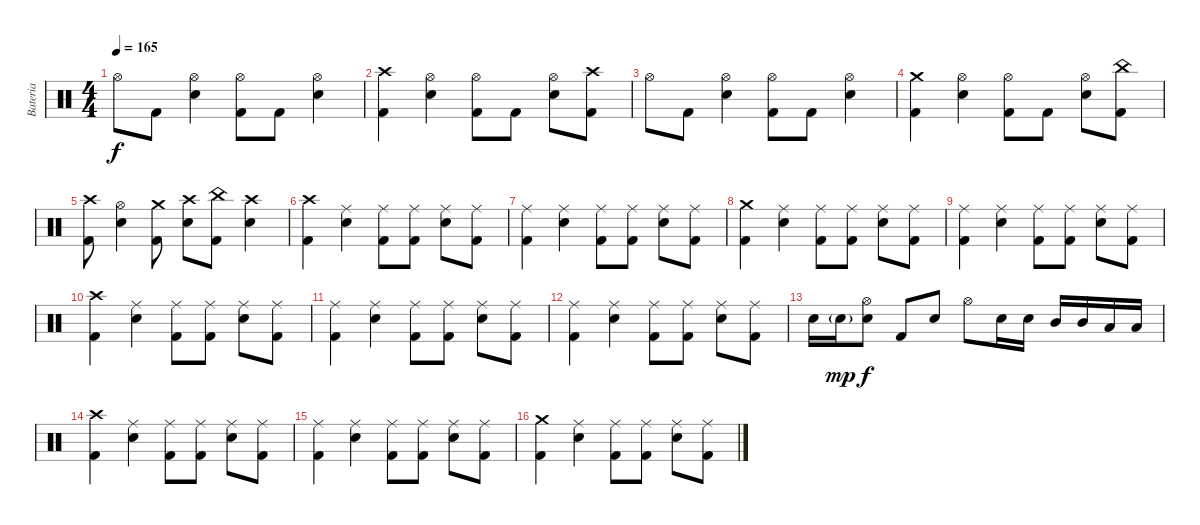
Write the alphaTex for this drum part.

\track ("Bateria" "Bateria") {instrument percussion}
\staff {score}
\articulation defaults
\ts (4 4)
\tempo 165
\clef neutral
\ks c "Hi-Hat (open)".8{dy f} "Kick (hit) 2".8
("Hi-Hat (open)" "Electric Snare (hit)").4 ("Hi-Hat (open)" "Kick (hit) 2").8 "Kick (hit) 2".8 ("Hi-Hat (open)" "Electric Snare (hit)").4 |
("Crash high (hit)" "Kick (hit) 2").4 ("Hi-Hat (open)" "Electric Snare (hit)").4 ("Hi-Hat (open)" "Kick (hit) 2").8 "Kick (hit) 2".8 ("Hi-Hat (open)" "Electric Snare (hit)").8 ("Crash high (hit)" "Kick (hit) 2").8 |
"Hi-Hat (open)".8 "Kick (hit) 2".8 ("Hi-Hat (open)" "Electric Snare (hit)").4 ("Hi-Hat (open)" "Kick (hit) 2").8 "Kick (hit) 2".8 ("Hi-Hat (open)" "Electric Snare (hit)").4 |
("Crash medium (hit)" "Kick (hit) 2").4 ("Hi-Hat (open)" "Electric Snare (hit)").4 ("Hi-Hat (open)" "Kick (hit) 2").8 "Kick (hit) 2".8 ("Hi-Hat (open)" "Electric Snare (hit)").8 ("China (hit)" "Kick (hit) 2").8 |
("Crash high (hit)" "Kick (hit) 2").8 ("Hi-Hat (open)" "Electric Snare (hit)").4 ("Crash medium (hit)" "Kick (hit) 2").8 ("Crash high (hit)" "Electric Snare (hit)").8 ("China (hit)" "Kick (hit) 2").8 ("Crash high (hit)" "Electric Snare (hit)").4 |
("Crash high (hit)" "Kick (hit) 2").4 ("Ride (middle)" "Electric Snare (hit)").4 ("Ride (middle)" "Kick (hit) 2").8 ("Ride (middle)" "Kick (hit) 2").8 ("Ride (middle)" "Electric Snare (hit)").8 ("Ride (middle)" "Kick (hit) 2").8 |
("Ride (middle)" "Kick (hit) 2").4 ("Ride (middle)" "Electric Snare (hit)").4 ("Ride (middle)" "Kick (hit) 2").8 ("Ride (middle)" "Kick (hit) 2").8 ("Ride (middle)" "Electric Snare (hit)").8 ("Ride (middle)" "Kick (hit) 2").8 |
("Crash medium (hit)" "Kick (hit) 2").4 ("Ride (middle)" "Electric Snare (hit)").4 ("Ride (middle)" "Kick (hit) 2").8 ("Ride (middle)" "Kick (hit) 2").8 ("Ride (middle)" "Electric Snare (hit)").8 ("Ride (middle)" "Kick (hit) 2").8 |
("Ride (middle)" "Kick (hit) 2").4 ("Ride (middle)" "Electric Snare (hit)").4 ("Ride (middle)" "Kick (hit) 2").8 ("Ride (middle)" "Kick (hit) 2").8 ("Ride (middle)" "Electric Snare (hit)").8 ("Ride (middle)" "Kick (hit) 2").8 |
("Crash high (hit)" "Kick (hit) 2").4 ("Ride (middle)" "Electric Snare (hit)").4 ("Ride (middle)" "Kick (hit) 2").8 ("Ride (middle)" "Kick (hit) 2").8 ("Ride (middle)" "Electric Snare (hit)").8 ("Ride (middle)" "Kick (hit) 2").8 |
("Ride (middle)" "Kick (hit) 2").4 ("Ride (middle)" "Electric Snare (hit)").4 ("Ride (middle)" "Kick (hit) 2").8 ("Ride (middle)" "Kick (hit) 2").8 ("Ride (middle)" "Electric Snare (hit)").8 ("Ride (middle)" "Kick (hit) 2").8 |
("Ride (middle)" "Kick (hit) 2").4 ("Ride (middle)" "Electric Snare (hit)").4 ("Ride (middle)" "Kick (hit) 2").8 ("Ride (middle)" "Kick (hit) 2").8 ("Ride (middle)" "Electric Snare (hit)").8 ("Ride (middle)" "Kick (hit) 2").8 |
"Electric Snare (hit)".16 "Electric Snare (hit)"{g}.16{dy mp} ("Hi-Hat (open)" "Electric Snare (hit)").8{dy f} "Kick (hit) 2".8 "Electric Snare (hit)".8 "Hi-Hat (open)".8 "Electric Snare (hit)".16 "Electric Snare (hit)".16 "Mid Tom (hit)".16 "Mid Tom (hit)".16 "Low Tom (hit)".16 "Low Tom (hit)".16 |
("Crash high (hit)" "Kick (hit) 2").4 ("Ride (middle)" "Electric Snare (hit)").4 ("Ride (middle)" "Kick (hit) 2").8 ("Ride (middle)" "Kick (hit) 2").8 ("Ride (middle)" "Electric Snare (hit)").8 ("Ride (middle)" "Kick (hit) 2").8 |
("Ride (middle)" "Kick (hit) 2").4 ("Ride (middle)" "Electric Snare (hit)").4 ("Ride (middle)" "Kick (hit) 2").8 ("Ride (middle)" "Kick (hit) 2").8 ("Ride (middle)" "Electric Snare (hit)").8 ("Ride (middle)" "Kick (hit) 2").8 |
("Crash medium (hit)" "Kick (hit) 2").4 ("Ride (middle)" "Electric Snare (hit)").4 ("Ride (middle)" "Kick (hit) 2").8 ("Ride (middle)" "Kick (hit) 2").8 ("Ride (middle)" "Electric Snare (hit)").8 ("Ride (middle)" "Kick (hit) 2").8
